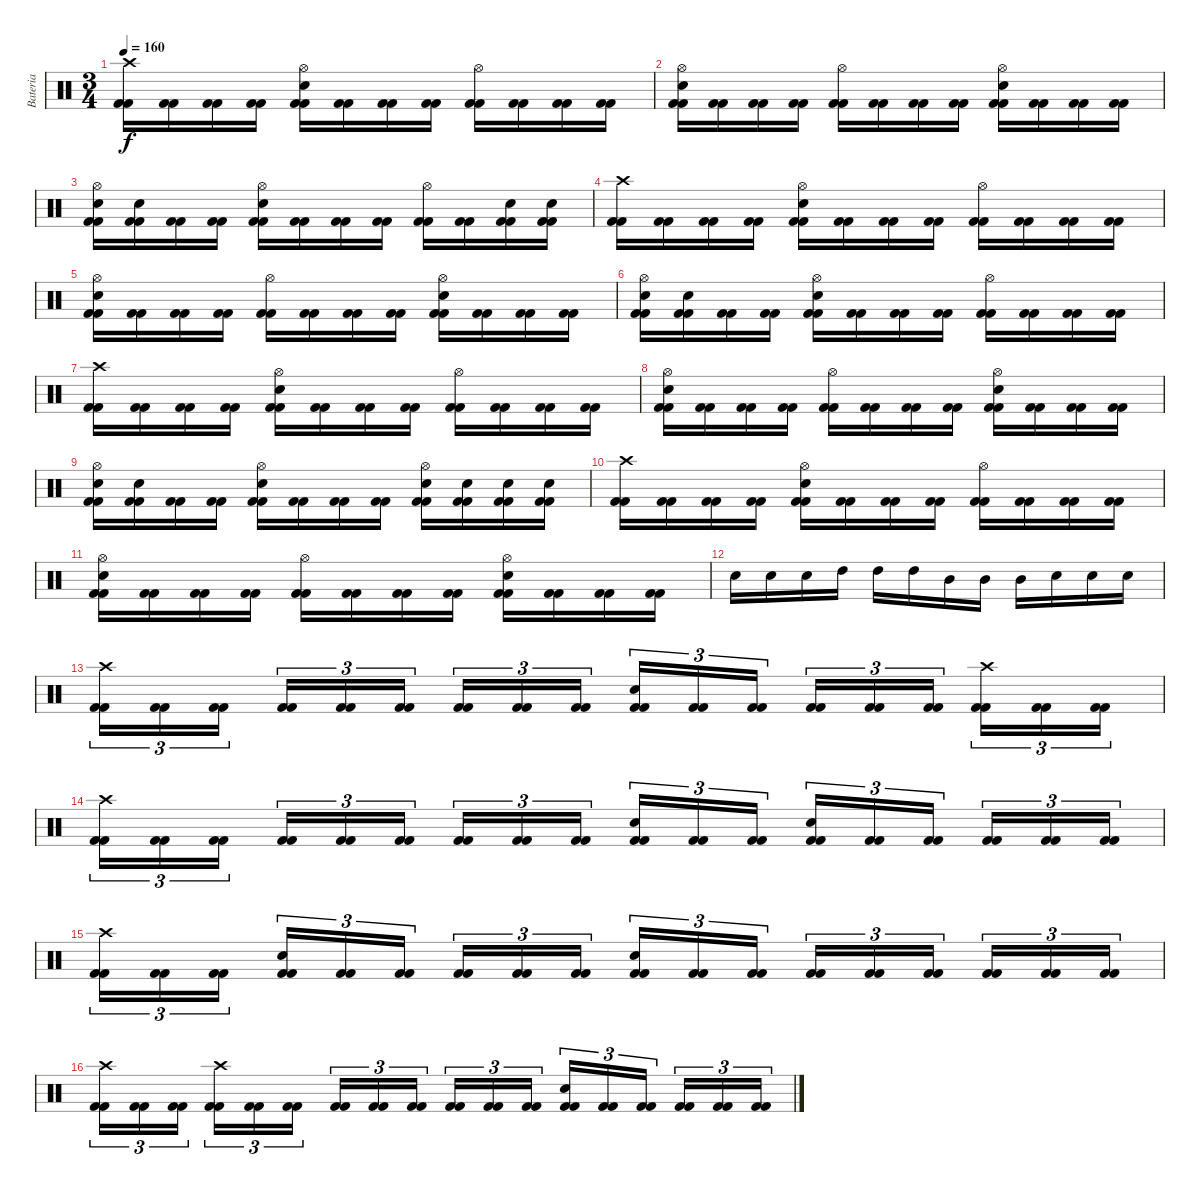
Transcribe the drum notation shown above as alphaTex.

\track ("Bateria" "Bateria") {instrument percussion}
\staff {score}
\articulation defaults
\ts (3 4)
\tempo 160
\clef neutral
\ks c
("Kick (hit) 2" "Kick (hit) 2" "Crash high (hit)").16{dy f} ("Kick (hit) 2" "Kick (hit) 2").16 ("Kick (hit) 2" "Kick (hit) 2").16 ("Kick (hit) 2" "Kick (hit) 2").16 ("Kick (hit) 2" "Kick (hit) 2" "Snare (hit) 2" "Hi-Hat (open)").16 ("Kick (hit) 2" "Kick (hit) 2").16 ("Kick (hit) 2" "Kick (hit) 2").16 ("Kick (hit) 2" "Kick (hit) 2").16 ("Kick (hit) 2" "Kick (hit) 2" "Hi-Hat (open)").16 ("Kick (hit) 2" "Kick (hit) 2").16 ("Kick (hit) 2" "Kick (hit) 2").16 ("Kick (hit) 2" "Kick (hit) 2").16 |
("Kick (hit) 2" "Kick (hit) 2" "Snare (hit) 2" "Hi-Hat (open)").16 ("Kick (hit) 2" "Kick (hit) 2").16 ("Kick (hit) 2" "Kick (hit) 2").16 ("Kick (hit) 2" "Kick (hit) 2").16 ("Kick (hit) 2" "Kick (hit) 2" "Hi-Hat (open)").16 ("Kick (hit) 2" "Kick (hit) 2").16 ("Kick (hit) 2" "Kick (hit) 2").16 ("Kick (hit) 2" "Kick (hit) 2").16 ("Kick (hit) 2" "Kick (hit) 2" "Snare (hit) 2" "Hi-Hat (open)").16 ("Kick (hit) 2" "Kick (hit) 2").16 ("Kick (hit) 2" "Kick (hit) 2").16 ("Kick (hit) 2" "Kick (hit) 2").16 |
("Kick (hit) 2" "Kick (hit) 2" "Snare (hit) 2" "Hi-Hat (open)").16 ("Kick (hit) 2" "Kick (hit) 2" "Snare (hit) 2").16 ("Kick (hit) 2" "Kick (hit) 2").16 ("Kick (hit) 2" "Kick (hit) 2").16 ("Kick (hit) 2" "Kick (hit) 2" "Snare (hit) 2" "Hi-Hat (open)").16 ("Kick (hit) 2" "Kick (hit) 2").16 ("Kick (hit) 2" "Kick (hit) 2").16 ("Kick (hit) 2" "Kick (hit) 2").16 ("Kick (hit) 2" "Kick (hit) 2" "Hi-Hat (open)").16 ("Kick (hit) 2" "Kick (hit) 2").16 ("Kick (hit) 2" "Kick (hit) 2" "Snare (hit) 2").16 ("Kick (hit) 2" "Kick (hit) 2" "Snare (hit) 2").16 |
("Kick (hit) 2" "Kick (hit) 2" "Crash high (hit)").16 ("Kick (hit) 2" "Kick (hit) 2").16 ("Kick (hit) 2" "Kick (hit) 2").16 ("Kick (hit) 2" "Kick (hit) 2").16 ("Kick (hit) 2" "Kick (hit) 2" "Snare (hit) 2" "Hi-Hat (open)").16 ("Kick (hit) 2" "Kick (hit) 2").16 ("Kick (hit) 2" "Kick (hit) 2").16 ("Kick (hit) 2" "Kick (hit) 2").16 ("Kick (hit) 2" "Kick (hit) 2" "Hi-Hat (open)").16 ("Kick (hit) 2" "Kick (hit) 2").16 ("Kick (hit) 2" "Kick (hit) 2").16 ("Kick (hit) 2" "Kick (hit) 2").16 |
("Kick (hit) 2" "Kick (hit) 2" "Snare (hit) 2" "Hi-Hat (open)").16 ("Kick (hit) 2" "Kick (hit) 2").16 ("Kick (hit) 2" "Kick (hit) 2").16 ("Kick (hit) 2" "Kick (hit) 2").16 ("Kick (hit) 2" "Kick (hit) 2" "Hi-Hat (open)").16 ("Kick (hit) 2" "Kick (hit) 2").16 ("Kick (hit) 2" "Kick (hit) 2").16 ("Kick (hit) 2" "Kick (hit) 2").16 ("Kick (hit) 2" "Kick (hit) 2" "Snare (hit) 2" "Hi-Hat (open)").16 ("Kick (hit) 2" "Kick (hit) 2").16 ("Kick (hit) 2" "Kick (hit) 2").16 ("Kick (hit) 2" "Kick (hit) 2").16 |
("Kick (hit) 2" "Kick (hit) 2" "Snare (hit) 2" "Hi-Hat (open)").16 ("Kick (hit) 2" "Kick (hit) 2" "Snare (hit) 2").16 ("Kick (hit) 2" "Kick (hit) 2").16 ("Kick (hit) 2" "Kick (hit) 2").16 ("Kick (hit) 2" "Kick (hit) 2" "Snare (hit) 2" "Hi-Hat (open)").16 ("Kick (hit) 2" "Kick (hit) 2").16 ("Kick (hit) 2" "Kick (hit) 2").16 ("Kick (hit) 2" "Kick (hit) 2").16 ("Kick (hit) 2" "Kick (hit) 2" "Hi-Hat (open)").16 ("Kick (hit) 2" "Kick (hit) 2").16 ("Kick (hit) 2" "Kick (hit) 2").16 ("Kick (hit) 2" "Kick (hit) 2").16 |
("Kick (hit) 2" "Kick (hit) 2" "Crash high (hit)").16 ("Kick (hit) 2" "Kick (hit) 2").16 ("Kick (hit) 2" "Kick (hit) 2").16 ("Kick (hit) 2" "Kick (hit) 2").16 ("Kick (hit) 2" "Kick (hit) 2" "Snare (hit) 2" "Hi-Hat (open)").16 ("Kick (hit) 2" "Kick (hit) 2").16 ("Kick (hit) 2" "Kick (hit) 2").16 ("Kick (hit) 2" "Kick (hit) 2").16 ("Kick (hit) 2" "Kick (hit) 2" "Hi-Hat (open)").16 ("Kick (hit) 2" "Kick (hit) 2").16 ("Kick (hit) 2" "Kick (hit) 2").16 ("Kick (hit) 2" "Kick (hit) 2").16 |
("Kick (hit) 2" "Kick (hit) 2" "Snare (hit) 2" "Hi-Hat (open)").16 ("Kick (hit) 2" "Kick (hit) 2").16 ("Kick (hit) 2" "Kick (hit) 2").16 ("Kick (hit) 2" "Kick (hit) 2").16 ("Kick (hit) 2" "Kick (hit) 2" "Hi-Hat (open)").16 ("Kick (hit) 2" "Kick (hit) 2").16 ("Kick (hit) 2" "Kick (hit) 2").16 ("Kick (hit) 2" "Kick (hit) 2").16 ("Kick (hit) 2" "Kick (hit) 2" "Snare (hit) 2" "Hi-Hat (open)").16 ("Kick (hit) 2" "Kick (hit) 2").16 ("Kick (hit) 2" "Kick (hit) 2").16 ("Kick (hit) 2" "Kick (hit) 2").16 |
("Kick (hit) 2" "Kick (hit) 2" "Snare (hit) 2" "Hi-Hat (open)").16 ("Kick (hit) 2" "Kick (hit) 2" "Snare (hit) 2").16 ("Kick (hit) 2" "Kick (hit) 2").16 ("Kick (hit) 2" "Kick (hit) 2").16 ("Kick (hit) 2" "Kick (hit) 2" "Snare (hit) 2" "Hi-Hat (open)").16 ("Kick (hit) 2" "Kick (hit) 2").16 ("Kick (hit) 2" "Kick (hit) 2").16 ("Kick (hit) 2" "Kick (hit) 2").16 ("Kick (hit) 2" "Kick (hit) 2" "Snare (hit) 2" "Hi-Hat (open)").16 ("Kick (hit) 2" "Kick (hit) 2" "Snare (hit) 2").16 ("Kick (hit) 2" "Kick (hit) 2" "Snare (hit) 2").16 ("Kick (hit) 2" "Kick (hit) 2" "Snare (hit) 2").16 |
("Kick (hit) 2" "Kick (hit) 2" "Crash high (hit)").16 ("Kick (hit) 2" "Kick (hit) 2").16 ("Kick (hit) 2" "Kick (hit) 2").16 ("Kick (hit) 2" "Kick (hit) 2").16 ("Kick (hit) 2" "Kick (hit) 2" "Snare (hit) 2" "Hi-Hat (open)").16 ("Kick (hit) 2" "Kick (hit) 2").16 ("Kick (hit) 2" "Kick (hit) 2").16 ("Kick (hit) 2" "Kick (hit) 2").16 ("Kick (hit) 2" "Kick (hit) 2" "Hi-Hat (open)").16 ("Kick (hit) 2" "Kick (hit) 2").16 ("Kick (hit) 2" "Kick (hit) 2").16 ("Kick (hit) 2" "Kick (hit) 2").16 |
("Kick (hit) 2" "Kick (hit) 2" "Snare (hit) 2" "Hi-Hat (open)").16 ("Kick (hit) 2" "Kick (hit) 2").16 ("Kick (hit) 2" "Kick (hit) 2").16 ("Kick (hit) 2" "Kick (hit) 2").16 ("Kick (hit) 2" "Kick (hit) 2" "Hi-Hat (open)").16 ("Kick (hit) 2" "Kick (hit) 2").16 ("Kick (hit) 2" "Kick (hit) 2").16 ("Kick (hit) 2" "Kick (hit) 2").16 ("Kick (hit) 2" "Kick (hit) 2" "Snare (hit) 2" "Hi-Hat (open)").16 ("Kick (hit) 2" "Kick (hit) 2").16 ("Kick (hit) 2" "Kick (hit) 2").16 ("Kick (hit) 2" "Kick (hit) 2").16 |
"Snare (hit) 2".16 "Snare (hit) 2".16 "Snare (hit) 2".16 "High Tom (hit)".16 "High Tom (hit)".16 "High Tom (hit)".16 "Mid Tom (hit)".16 "Mid Tom (hit)".16 "Mid Tom (hit)".16 "Snare (hit) 2".16 "Snare (hit) 2".16 "Snare (hit) 2".16 |
("Kick (hit) 2" "Kick (hit) 2" "Crash high (hit)").16{tu (3 2)} ("Kick (hit) 2" "Kick (hit) 2").16{tu (3 2)} ("Kick (hit) 2" "Kick (hit) 2").16{tu (3 2)} ("Kick (hit) 2" "Kick (hit) 2").16{tu (3 2)} ("Kick (hit) 2" "Kick (hit) 2").16{tu (3 2)} ("Kick (hit) 2" "Kick (hit) 2").16{tu (3 2)} ("Kick (hit) 2" "Kick (hit) 2").16{tu (3 2)} ("Kick (hit) 2" "Kick (hit) 2").16{tu (3 2)} ("Kick (hit) 2" "Kick (hit) 2").16{tu (3 2)} ("Kick (hit) 2" "Kick (hit) 2" "Snare (hit) 2").16{tu (3 2)} ("Kick (hit) 2" "Kick (hit) 2").16{tu (3 2)} ("Kick (hit) 2" "Kick (hit) 2").16{tu (3 2)} ("Kick (hit) 2" "Kick (hit) 2").16{tu (3 2)} ("Kick (hit) 2" "Kick (hit) 2").16{tu (3 2)} ("Kick (hit) 2" "Kick (hit) 2").16{tu (3 2)} ("Kick (hit) 2" "Kick (hit) 2" "Crash high (hit)").16{tu (3 2)} ("Kick (hit) 2" "Kick (hit) 2").16{tu (3 2)} ("Kick (hit) 2" "Kick (hit) 2").16{tu (3 2)} |
("Kick (hit) 2" "Kick (hit) 2" "Crash high (hit)").16{tu (3 2)} ("Kick (hit) 2" "Kick (hit) 2").16{tu (3 2)} ("Kick (hit) 2" "Kick (hit) 2").16{tu (3 2)} ("Kick (hit) 2" "Kick (hit) 2").16{tu (3 2)} ("Kick (hit) 2" "Kick (hit) 2").16{tu (3 2)} ("Kick (hit) 2" "Kick (hit) 2").16{tu (3 2)} ("Kick (hit) 2" "Kick (hit) 2").16{tu (3 2)} ("Kick (hit) 2" "Kick (hit) 2").16{tu (3 2)} ("Kick (hit) 2" "Kick (hit) 2").16{tu (3 2)} ("Kick (hit) 2" "Kick (hit) 2" "Snare (hit) 2").16{tu (3 2)} ("Kick (hit) 2" "Kick (hit) 2").16{tu (3 2)} ("Kick (hit) 2" "Kick (hit) 2").16{tu (3 2)} ("Kick (hit) 2" "Kick (hit) 2" "Snare (hit) 2").16{tu (3 2)} ("Kick (hit) 2" "Kick (hit) 2").16{tu (3 2)} ("Kick (hit) 2" "Kick (hit) 2").16{tu (3 2)} ("Kick (hit) 2" "Kick (hit) 2").16{tu (3 2)} ("Kick (hit) 2" "Kick (hit) 2").16{tu (3 2)} ("Kick (hit) 2" "Kick (hit) 2").16{tu (3 2)} |
("Kick (hit) 2" "Kick (hit) 2" "Crash high (hit)").16{tu (3 2)} ("Kick (hit) 2" "Kick (hit) 2").16{tu (3 2)} ("Kick (hit) 2" "Kick (hit) 2").16{tu (3 2)} ("Kick (hit) 2" "Kick (hit) 2" "Snare (hit) 2").16{tu (3 2)} ("Kick (hit) 2" "Kick (hit) 2").16{tu (3 2)} ("Kick (hit) 2" "Kick (hit) 2").16{tu (3 2)} ("Kick (hit) 2" "Kick (hit) 2").16{tu (3 2)} ("Kick (hit) 2" "Kick (hit) 2").16{tu (3 2)} ("Kick (hit) 2" "Kick (hit) 2").16{tu (3 2)} ("Kick (hit) 2" "Kick (hit) 2" "Snare (hit) 2").16{tu (3 2)} ("Kick (hit) 2" "Kick (hit) 2").16{tu (3 2)} ("Kick (hit) 2" "Kick (hit) 2").16{tu (3 2)} ("Kick (hit) 2" "Kick (hit) 2").16{tu (3 2)} ("Kick (hit) 2" "Kick (hit) 2").16{tu (3 2)} ("Kick (hit) 2" "Kick (hit) 2").16{tu (3 2)} ("Kick (hit) 2" "Kick (hit) 2").16{tu (3 2)} ("Kick (hit) 2" "Kick (hit) 2").16{tu (3 2)} ("Kick (hit) 2" "Kick (hit) 2").16{tu (3 2)} |
("Kick (hit) 2" "Kick (hit) 2" "Crash high (hit)").16{tu (3 2)} ("Kick (hit) 2" "Kick (hit) 2").16{tu (3 2)} ("Kick (hit) 2" "Kick (hit) 2").16{tu (3 2)} ("Kick (hit) 2" "Kick (hit) 2" "Crash high (hit)").16{tu (3 2)} ("Kick (hit) 2" "Kick (hit) 2").16{tu (3 2)} ("Kick (hit) 2" "Kick (hit) 2").16{tu (3 2)} ("Kick (hit) 2" "Kick (hit) 2").16{tu (3 2)} ("Kick (hit) 2" "Kick (hit) 2").16{tu (3 2)} ("Kick (hit) 2" "Kick (hit) 2").16{tu (3 2)} ("Kick (hit) 2" "Kick (hit) 2").16{tu (3 2)} ("Kick (hit) 2" "Kick (hit) 2").16{tu (3 2)} ("Kick (hit) 2" "Kick (hit) 2").16{tu (3 2)} ("Kick (hit) 2" "Kick (hit) 2" "Snare (hit) 2").16{tu (3 2)} ("Kick (hit) 2" "Kick (hit) 2").16{tu (3 2)} ("Kick (hit) 2" "Kick (hit) 2").16{tu (3 2)} ("Kick (hit) 2" "Kick (hit) 2").16{tu (3 2)} ("Kick (hit) 2" "Kick (hit) 2").16{tu (3 2)} ("Kick (hit) 2" "Kick (hit) 2").16{tu (3 2)}
